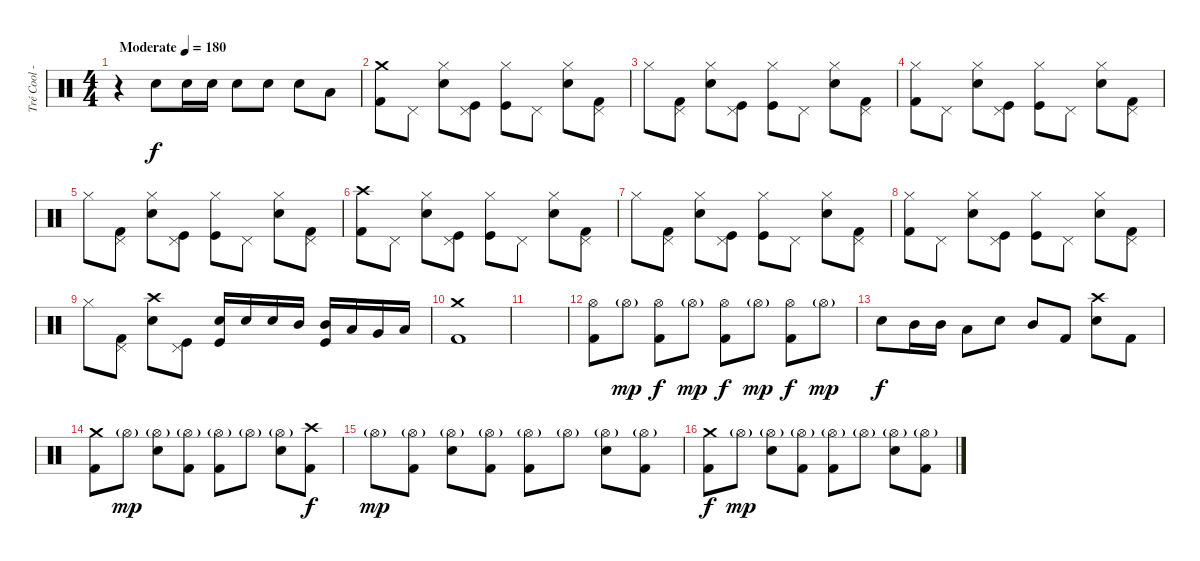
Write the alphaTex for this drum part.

\track ("Tré Cool - Drums" "Tré Cool -") {instrument percussion}
\staff {score}
\articulation defaults
\ts (4 4)
\tempo (180 "Moderate")
\clef neutral
\ks c
r.4{dy f} "Electric Snare (hit)".8 "Electric Snare (hit)".16 "Electric Snare (hit)".16 "Electric Snare (hit)".8 "Electric Snare (hit)".8 "Electric Snare (hit)".8 "Low Tom (hit)".8 |
("Crash medium (hit)" "Kick (hit) 2").8 "Pedal Hi-Hat (hit)".8 ("Hi-Hat (closed)" "Electric Snare (hit)").8 ("Pedal Hi-Hat (hit)" "Kick (hit)").8 ("Hi-Hat (closed)" "Kick (hit)").8 "Pedal Hi-Hat (hit)".8 ("Hi-Hat (closed)" "Electric Snare (hit)").8 ("Pedal Hi-Hat (hit)" "Kick (hit) 2").8 |
"Hi-Hat (closed)".8 ("Pedal Hi-Hat (hit)" "Kick (hit) 2").8 ("Hi-Hat (closed)" "Electric Snare (hit)").8 ("Pedal Hi-Hat (hit)" "Kick (hit)").8 ("Hi-Hat (closed)" "Kick (hit)").8 "Pedal Hi-Hat (hit)".8 ("Hi-Hat (closed)" "Electric Snare (hit)").8 ("Pedal Hi-Hat (hit)" "Kick (hit) 2").8 |
("Hi-Hat (closed)" "Kick (hit) 2").8 "Pedal Hi-Hat (hit)".8 ("Hi-Hat (closed)" "Electric Snare (hit)").8 ("Pedal Hi-Hat (hit)" "Kick (hit)").8 ("Hi-Hat (closed)" "Kick (hit)").8 "Pedal Hi-Hat (hit)".8 ("Hi-Hat (closed)" "Electric Snare (hit)").8 ("Pedal Hi-Hat (hit)" "Kick (hit) 2").8 |
"Hi-Hat (closed)".8 ("Pedal Hi-Hat (hit)" "Kick (hit) 2").8 ("Hi-Hat (closed)" "Electric Snare (hit)").8 ("Pedal Hi-Hat (hit)" "Kick (hit)").8 ("Hi-Hat (closed)" "Kick (hit)").8 "Pedal Hi-Hat (hit)".8 ("Hi-Hat (closed)" "Electric Snare (hit)").8 ("Pedal Hi-Hat (hit)" "Kick (hit) 2").8 |
("Crash high (hit)" "Kick (hit) 2").8 "Pedal Hi-Hat (hit)".8 ("Hi-Hat (closed)" "Electric Snare (hit)").8 ("Pedal Hi-Hat (hit)" "Kick (hit)").8 ("Hi-Hat (closed)" "Kick (hit)").8 "Pedal Hi-Hat (hit)".8 ("Hi-Hat (closed)" "Electric Snare (hit)").8 ("Pedal Hi-Hat (hit)" "Kick (hit) 2").8 |
"Hi-Hat (closed)".8 ("Pedal Hi-Hat (hit)" "Kick (hit) 2").8 ("Hi-Hat (closed)" "Electric Snare (hit)").8 ("Pedal Hi-Hat (hit)" "Kick (hit)").8 ("Hi-Hat (closed)" "Kick (hit)").8 "Pedal Hi-Hat (hit)".8 ("Hi-Hat (closed)" "Electric Snare (hit)").8 ("Pedal Hi-Hat (hit)" "Kick (hit) 2").8 |
("Hi-Hat (closed)" "Kick (hit) 2").8 "Pedal Hi-Hat (hit)".8 ("Hi-Hat (closed)" "Electric Snare (hit)").8 ("Pedal Hi-Hat (hit)" "Kick (hit)").8 ("Hi-Hat (closed)" "Kick (hit)").8 "Pedal Hi-Hat (hit)".8 ("Hi-Hat (closed)" "Electric Snare (hit)").8 ("Pedal Hi-Hat (hit)" "Kick (hit) 2").8 |
"Hi-Hat (closed)".8 ("Pedal Hi-Hat (hit)" "Kick (hit) 2").8 ("Crash high (hit)" "Electric Snare (hit)").8 ("Pedal Hi-Hat (hit)" "Kick (hit)").8 ("Kick (hit)" "Electric Snare (hit)").16 "Electric Snare (hit)".16 "Electric Snare (hit)".16 "Mid Tom (hit)".16 ("Kick (hit)" "Mid Tom (hit)").16 "Low Tom (hit)".16 "Very Low Tom (hit)".16 "Low Floor Tom (hit)".16 |
("Crash medium (hit)" "Kick (hit) 2").1 |
|
("Hi-Hat (open)" "Kick (hit) 2").8 "Hi-Hat (open)"{g}.8{dy mp} ("Hi-Hat (open)" "Kick (hit) 2").8{dy f} "Hi-Hat (open)"{g}.8{dy mp} ("Hi-Hat (open)" "Kick (hit) 2").8{dy f} "Hi-Hat (open)"{g}.8{dy mp} ("Hi-Hat (open)" "Kick (hit) 2").8{dy f} "Hi-Hat (open)"{g}.8{dy mp} |
"Electric Snare (hit)".8{dy f} "Mid Tom (hit)".16 "Mid Tom (hit)".16 "Low Tom (hit)".8 "Electric Snare (hit)".8 "Mid Tom (hit)".8 "Kick (hit) 2".8 ("Crash high (hit)" "Electric Snare (hit)").8 "Kick (hit) 2".8 |
("Crash medium (hit)" "Kick (hit) 2").8 "Hi-Hat (open)"{g}.8{dy mp} ("Hi-Hat (open)"{g} "Electric Snare (hit)").8 ("Hi-Hat (open)"{g} "Kick (hit) 2").8 ("Hi-Hat (open)"{g} "Kick (hit) 2").8 "Hi-Hat (open)"{g}.8 ("Hi-Hat (open)"{g} "Electric Snare (hit)").8 ("Crash high (hit)" "Kick (hit) 2").8{dy f} |
"Hi-Hat (open)"{g}.8{dy mp} ("Hi-Hat (open)"{g} "Kick (hit) 2").8 ("Hi-Hat (open)"{g} "Electric Snare (hit)").8 ("Hi-Hat (open)"{g} "Kick (hit) 2").8 ("Hi-Hat (open)"{g} "Kick (hit) 2").8 "Hi-Hat (open)"{g}.8 ("Hi-Hat (open)"{g} "Electric Snare (hit)").8 ("Hi-Hat (open)"{g} "Kick (hit) 2").8 |
("Crash medium (hit)" "Kick (hit) 2").8{dy f} "Hi-Hat (open)"{g}.8{dy mp} ("Hi-Hat (open)"{g} "Electric Snare (hit)").8 ("Hi-Hat (open)"{g} "Kick (hit) 2").8 ("Hi-Hat (open)"{g} "Kick (hit) 2").8 "Hi-Hat (open)"{g}.8 ("Hi-Hat (open)"{g} "Electric Snare (hit)").8 ("Hi-Hat (open)"{g} "Kick (hit) 2").8
